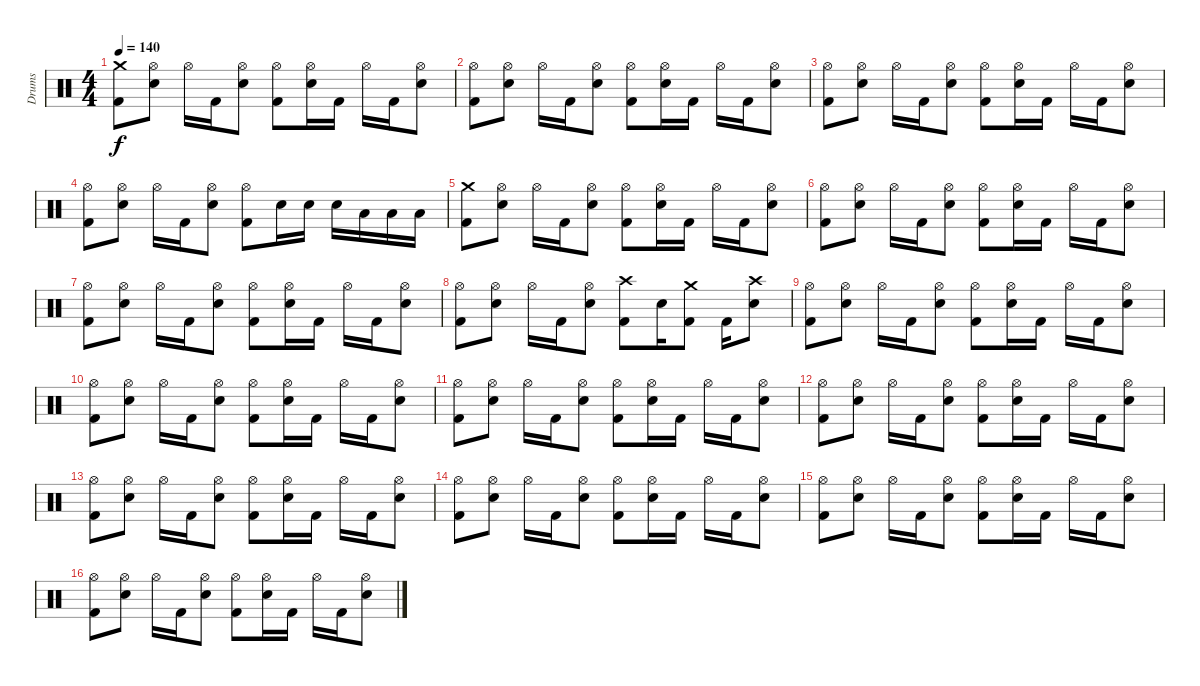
\track ("Drums" "Drums") {instrument percussion}
\staff {score}
\articulation defaults
\ts (4 4)
\tempo 140
\clef neutral
\ks c
("Crash medium (hit)" "Kick (hit) 2").8{dy f} ("Hi-Hat (open)" "Electric Snare (hit)").8 "Hi-Hat (open)".16 "Kick (hit) 2".16 ("Hi-Hat (open)" "Electric Snare (hit)").8 ("Hi-Hat (open)" "Kick (hit) 2").8 ("Hi-Hat (open)" "Electric Snare (hit)").16 "Kick (hit) 2".16 "Hi-Hat (open)".16 "Kick (hit) 2".16 ("Hi-Hat (open)" "Electric Snare (hit)").8 |
("Hi-Hat (open)" "Kick (hit) 2").8 ("Hi-Hat (open)" "Electric Snare (hit)").8 "Hi-Hat (open)".16 "Kick (hit) 2".16 ("Hi-Hat (open)" "Electric Snare (hit)").8 ("Hi-Hat (open)" "Kick (hit) 2").8 ("Hi-Hat (open)" "Electric Snare (hit)").16 "Kick (hit) 2".16 "Hi-Hat (open)".16 "Kick (hit) 2".16 ("Hi-Hat (open)" "Electric Snare (hit)").8 |
("Hi-Hat (open)" "Kick (hit) 2").8 ("Hi-Hat (open)" "Electric Snare (hit)").8 "Hi-Hat (open)".16 "Kick (hit) 2".16 ("Hi-Hat (open)" "Electric Snare (hit)").8 ("Hi-Hat (open)" "Kick (hit) 2").8 ("Hi-Hat (open)" "Electric Snare (hit)").16 "Kick (hit) 2".16 "Hi-Hat (open)".16 "Kick (hit) 2".16 ("Hi-Hat (open)" "Electric Snare (hit)").8 |
("Hi-Hat (open)" "Kick (hit) 2").8 ("Hi-Hat (open)" "Electric Snare (hit)").8 "Hi-Hat (open)".16 "Kick (hit) 2".16 ("Hi-Hat (open)" "Electric Snare (hit)").8 ("Hi-Hat (open)" "Kick (hit) 2").8 "Electric Snare (hit)".16 "Electric Snare (hit)".16 "Electric Snare (hit)".16 "Low Tom (hit)".16 "Low Floor Tom (hit)".16 "Low Floor Tom (hit)".16 |
("Crash medium (hit)" "Kick (hit) 2").8 ("Hi-Hat (open)" "Electric Snare (hit)").8 "Hi-Hat (open)".16 "Kick (hit) 2".16 ("Hi-Hat (open)" "Electric Snare (hit)").8 ("Hi-Hat (open)" "Kick (hit) 2").8 ("Hi-Hat (open)" "Electric Snare (hit)").16 "Kick (hit) 2".16 "Hi-Hat (open)".16 "Kick (hit) 2".16 ("Hi-Hat (open)" "Electric Snare (hit)").8 |
("Hi-Hat (open)" "Kick (hit) 2").8 ("Hi-Hat (open)" "Electric Snare (hit)").8 "Hi-Hat (open)".16 "Kick (hit) 2".16 ("Hi-Hat (open)" "Electric Snare (hit)").8 ("Hi-Hat (open)" "Kick (hit) 2").8 ("Hi-Hat (open)" "Electric Snare (hit)").16 "Kick (hit) 2".16 "Hi-Hat (open)".16 "Kick (hit) 2".16 ("Hi-Hat (open)" "Electric Snare (hit)").8 |
("Hi-Hat (open)" "Kick (hit) 2").8 ("Hi-Hat (open)" "Electric Snare (hit)").8 "Hi-Hat (open)".16 "Kick (hit) 2".16 ("Hi-Hat (open)" "Electric Snare (hit)").8 ("Hi-Hat (open)" "Kick (hit) 2").8 ("Hi-Hat (open)" "Electric Snare (hit)").16 "Kick (hit) 2".16 "Hi-Hat (open)".16 "Kick (hit) 2".16 ("Hi-Hat (open)" "Electric Snare (hit)").8 |
("Hi-Hat (open)" "Kick (hit) 2").8 ("Hi-Hat (open)" "Electric Snare (hit)").8 "Hi-Hat (open)".16 "Kick (hit) 2".16 ("Hi-Hat (open)" "Electric Snare (hit)").8 ("Crash high (hit)" "Kick (hit) 2").8 "Electric Snare (hit)".16 ("Crash medium (hit)" "Kick (hit) 2").8 "Kick (hit) 2".16 ("Crash high (hit)" "Electric Snare (hit)").8 |
("Hi-Hat (open)" "Kick (hit) 2").8 ("Hi-Hat (open)" "Electric Snare (hit)").8 "Hi-Hat (open)".16 "Kick (hit) 2".16 ("Hi-Hat (open)" "Electric Snare (hit)").8 ("Hi-Hat (open)" "Kick (hit) 2").8 ("Hi-Hat (open)" "Electric Snare (hit)").16 "Kick (hit) 2".16 "Hi-Hat (open)".16 "Kick (hit) 2".16 ("Hi-Hat (open)" "Electric Snare (hit)").8 |
("Hi-Hat (open)" "Kick (hit) 2").8 ("Hi-Hat (open)" "Electric Snare (hit)").8 "Hi-Hat (open)".16 "Kick (hit) 2".16 ("Hi-Hat (open)" "Electric Snare (hit)").8 ("Hi-Hat (open)" "Kick (hit) 2").8 ("Hi-Hat (open)" "Electric Snare (hit)").16 "Kick (hit) 2".16 "Hi-Hat (open)".16 "Kick (hit) 2".16 ("Hi-Hat (open)" "Electric Snare (hit)").8 |
("Hi-Hat (open)" "Kick (hit) 2").8 ("Hi-Hat (open)" "Electric Snare (hit)").8 "Hi-Hat (open)".16 "Kick (hit) 2".16 ("Hi-Hat (open)" "Electric Snare (hit)").8 ("Hi-Hat (open)" "Kick (hit) 2").8 ("Hi-Hat (open)" "Electric Snare (hit)").16 "Kick (hit) 2".16 "Hi-Hat (open)".16 "Kick (hit) 2".16 ("Hi-Hat (open)" "Electric Snare (hit)").8 |
("Hi-Hat (open)" "Kick (hit) 2").8 ("Hi-Hat (open)" "Electric Snare (hit)").8 "Hi-Hat (open)".16 "Kick (hit) 2".16 ("Hi-Hat (open)" "Electric Snare (hit)").8 ("Hi-Hat (open)" "Kick (hit) 2").8 ("Hi-Hat (open)" "Electric Snare (hit)").16 "Kick (hit) 2".16 "Hi-Hat (open)".16 "Kick (hit) 2".16 ("Hi-Hat (open)" "Electric Snare (hit)").8 |
("Hi-Hat (open)" "Kick (hit) 2").8 ("Hi-Hat (open)" "Electric Snare (hit)").8 "Hi-Hat (open)".16 "Kick (hit) 2".16 ("Hi-Hat (open)" "Electric Snare (hit)").8 ("Hi-Hat (open)" "Kick (hit) 2").8 ("Hi-Hat (open)" "Electric Snare (hit)").16 "Kick (hit) 2".16 "Hi-Hat (open)".16 "Kick (hit) 2".16 ("Hi-Hat (open)" "Electric Snare (hit)").8 |
("Hi-Hat (open)" "Kick (hit) 2").8 ("Hi-Hat (open)" "Electric Snare (hit)").8 "Hi-Hat (open)".16 "Kick (hit) 2".16 ("Hi-Hat (open)" "Electric Snare (hit)").8 ("Hi-Hat (open)" "Kick (hit) 2").8 ("Hi-Hat (open)" "Electric Snare (hit)").16 "Kick (hit) 2".16 "Hi-Hat (open)".16 "Kick (hit) 2".16 ("Hi-Hat (open)" "Electric Snare (hit)").8 |
("Hi-Hat (open)" "Kick (hit) 2").8 ("Hi-Hat (open)" "Electric Snare (hit)").8 "Hi-Hat (open)".16 "Kick (hit) 2".16 ("Hi-Hat (open)" "Electric Snare (hit)").8 ("Hi-Hat (open)" "Kick (hit) 2").8 ("Hi-Hat (open)" "Electric Snare (hit)").16 "Kick (hit) 2".16 "Hi-Hat (open)".16 "Kick (hit) 2".16 ("Hi-Hat (open)" "Electric Snare (hit)").8 |
("Hi-Hat (open)" "Kick (hit) 2").8 ("Hi-Hat (open)" "Electric Snare (hit)").8 "Hi-Hat (open)".16 "Kick (hit) 2".16 ("Hi-Hat (open)" "Electric Snare (hit)").8 ("Hi-Hat (open)" "Kick (hit) 2").8 ("Hi-Hat (open)" "Electric Snare (hit)").16 "Kick (hit) 2".16 "Hi-Hat (open)".16 "Kick (hit) 2".16 ("Hi-Hat (open)" "Electric Snare (hit)").8
